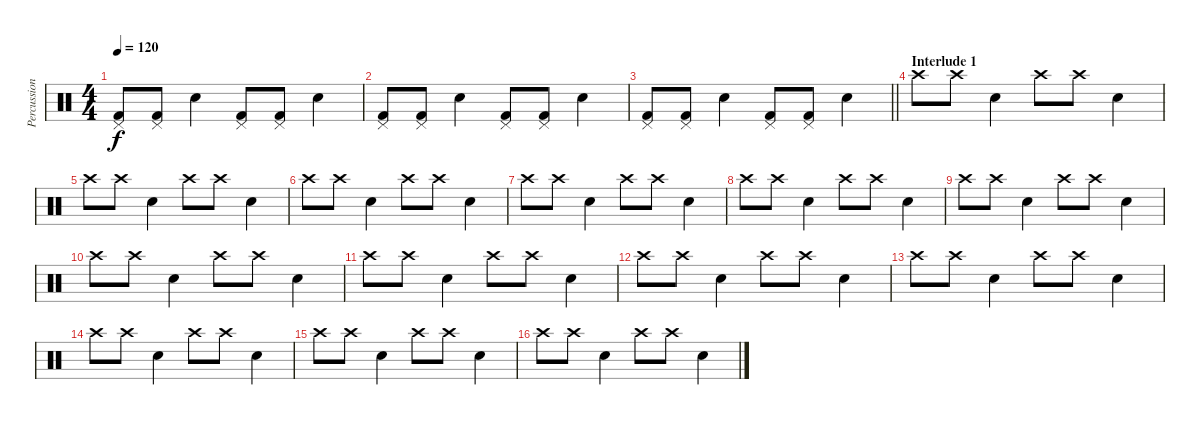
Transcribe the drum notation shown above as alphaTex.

\track ("Percussion" "Percussion") {instrument percussion}
\staff {score}
\articulation defaults
\ts (4 4)
\tempo 120
\clef neutral
\ks c
("Kick (hit) 2" "Pedal Hi-Hat (hit)").8{dy f} ("Kick (hit) 2" "Pedal Hi-Hat (hit)").8 "Electric Snare (hit)".4 ("Kick (hit) 2" "Pedal Hi-Hat (hit)").8 ("Kick (hit) 2" "Pedal Hi-Hat (hit)").8 "Electric Snare (hit)".4 |
("Kick (hit) 2" "Pedal Hi-Hat (hit)").8 ("Kick (hit) 2" "Pedal Hi-Hat (hit)").8 "Electric Snare (hit)".4 ("Kick (hit) 2" "Pedal Hi-Hat (hit)").8 ("Kick (hit) 2" "Pedal Hi-Hat (hit)").8 "Electric Snare (hit)".4 |
\barLineRight lightlight
("Kick (hit) 2" "Pedal Hi-Hat (hit)").8 ("Kick (hit) 2" "Pedal Hi-Hat (hit)").8 "Electric Snare (hit)".4 ("Kick (hit) 2" "Pedal Hi-Hat (hit)").8 ("Kick (hit) 2" "Pedal Hi-Hat (hit)").8 "Electric Snare (hit)".4 |
\section ("" "Interlude 1")
"Crash high (hit)".8 "Crash high (hit)".8 "Electric Snare (hit)".4 "Crash high (hit)".8 "Crash high (hit)".8 "Electric Snare (hit)".4 |
"Crash high (hit)".8 "Crash high (hit)".8 "Electric Snare (hit)".4 "Crash high (hit)".8 "Crash high (hit)".8 "Electric Snare (hit)".4 |
"Crash high (hit)".8 "Crash high (hit)".8 "Electric Snare (hit)".4 "Crash high (hit)".8 "Crash high (hit)".8 "Electric Snare (hit)".4 |
"Crash high (hit)".8 "Crash high (hit)".8 "Electric Snare (hit)".4 "Crash high (hit)".8 "Crash high (hit)".8 "Electric Snare (hit)".4 |
"Crash high (hit)".8 "Crash high (hit)".8 "Electric Snare (hit)".4 "Crash high (hit)".8 "Crash high (hit)".8 "Electric Snare (hit)".4 |
"Crash high (hit)".8 "Crash high (hit)".8 "Electric Snare (hit)".4 "Crash high (hit)".8 "Crash high (hit)".8 "Electric Snare (hit)".4 |
"Crash high (hit)".8 "Crash high (hit)".8 "Electric Snare (hit)".4 "Crash high (hit)".8 "Crash high (hit)".8 "Electric Snare (hit)".4 |
"Crash high (hit)".8 "Crash high (hit)".8 "Electric Snare (hit)".4 "Crash high (hit)".8 "Crash high (hit)".8 "Electric Snare (hit)".4 |
"Crash high (hit)".8 "Crash high (hit)".8 "Electric Snare (hit)".4 "Crash high (hit)".8 "Crash high (hit)".8 "Electric Snare (hit)".4 |
"Crash high (hit)".8 "Crash high (hit)".8 "Electric Snare (hit)".4 "Crash high (hit)".8 "Crash high (hit)".8 "Electric Snare (hit)".4 |
"Crash high (hit)".8 "Crash high (hit)".8 "Electric Snare (hit)".4 "Crash high (hit)".8 "Crash high (hit)".8 "Electric Snare (hit)".4 |
"Crash high (hit)".8 "Crash high (hit)".8 "Electric Snare (hit)".4 "Crash high (hit)".8 "Crash high (hit)".8 "Electric Snare (hit)".4 |
"Crash high (hit)".8 "Crash high (hit)".8 "Electric Snare (hit)".4 "Crash high (hit)".8 "Crash high (hit)".8 "Electric Snare (hit)".4
